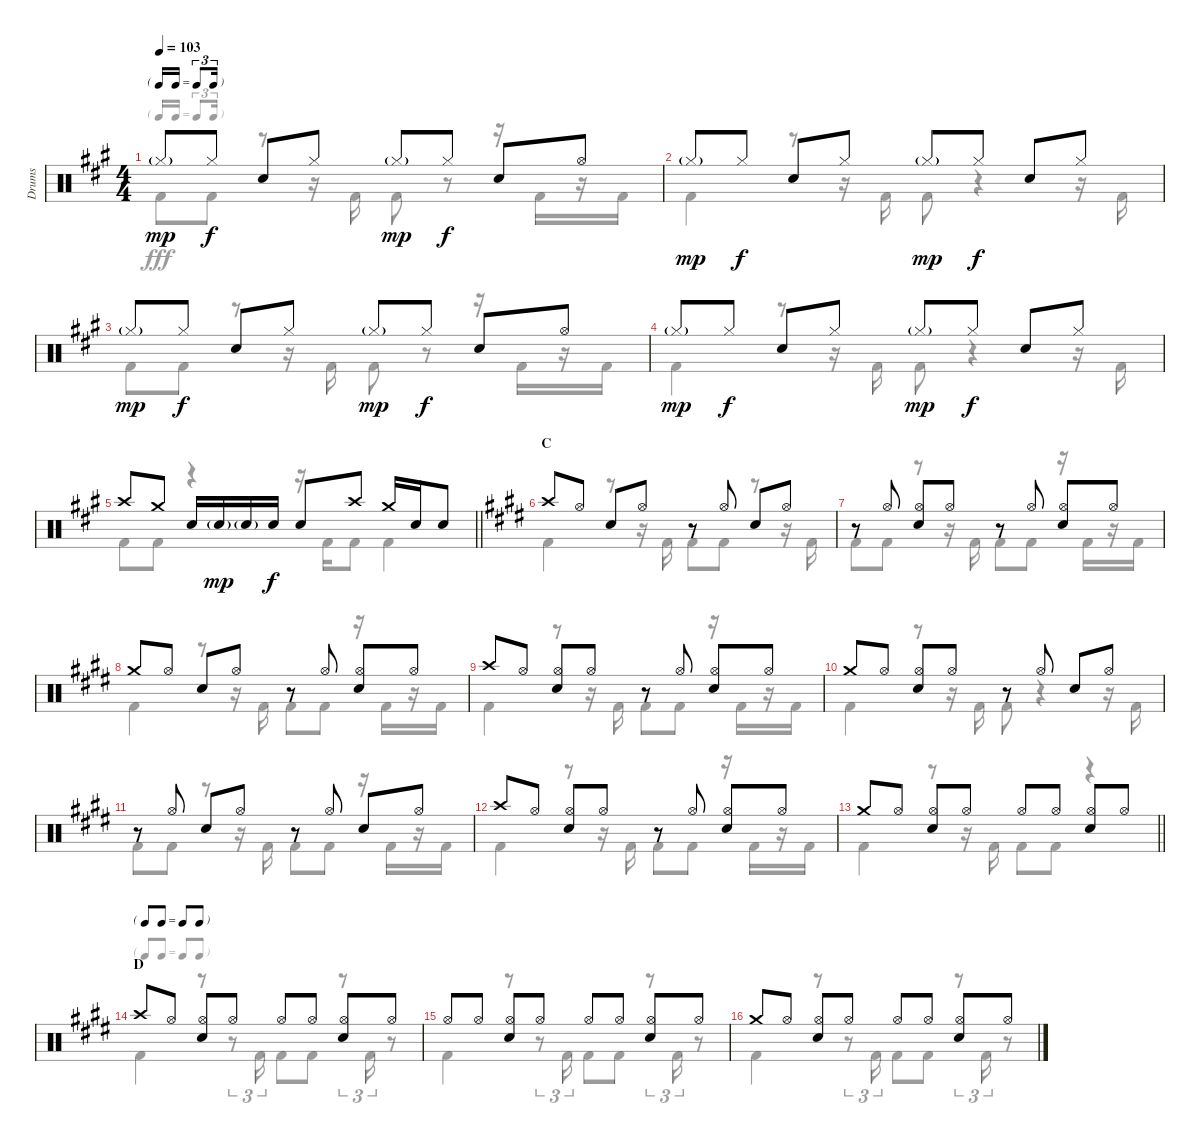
\track ("Drums" "Drums") {instrument percussion}
\staff {score}
\articulation defaults
\voice
\ts (4 4)
\tf triplet16th
\tempo 103
\clef neutral
\ks a "Hi-Hat (closed)"{g}.8{dy mp} "Hi-Hat (closed)".8{dy f} "Snare (hit) 2".8 "Hi-Hat (closed)".8 "Hi-Hat (closed)"{g}.8{dy mp} "Hi-Hat (closed)".8{dy f} "Snare (hit) 2".8 "Hi-Hat (open)".8
|
"Hi-Hat (closed)"{g}.8{dy mp} "Hi-Hat (closed)".8{dy f} "Snare (hit) 2".8 "Hi-Hat (closed)".8 "Hi-Hat (closed)"{g}.8{dy mp} "Hi-Hat (closed)".8{dy f} "Snare (hit) 2".8 "Hi-Hat (closed)".8 |
"Hi-Hat (closed)"{g}.8{dy mp} "Hi-Hat (closed)".8{dy f} "Snare (hit) 2".8 "Hi-Hat (closed)".8 "Hi-Hat (closed)"{g}.8{dy mp} "Hi-Hat (closed)".8{dy f} "Snare (hit) 2".8 "Hi-Hat (open)".8 |
"Hi-Hat (closed)"{g}.8{dy mp} "Hi-Hat (closed)".8{dy f} "Snare (hit) 2".8 "Hi-Hat (closed)".8 "Hi-Hat (closed)"{g}.8{dy mp} "Hi-Hat (closed)".8{dy f} "Snare (hit) 2".8 "Hi-Hat (closed)".8 |
\barLineRight lightlight "Crash high (hit)".8 "Crash medium (hit)".8 "Snare (hit) 2".16 "Snare (hit) 2"{g}.16{dy mp} "Snare (hit) 2"{g}.16 "Snare (hit) 2".16{dy f} "Snare (hit) 2".8 "Crash high (hit)".8 "Crash medium (hit)".16 "Snare (hit) 2".16 "Snare (hit) 2".8
|
\section ("" "C")
\ks e "Crash high (hit)".8 "Hi-Hat (open)".8 "Snare (hit) 2".8 "Hi-Hat (open)".8
r.8 "Hi-Hat (open)".8 "Snare (hit) 2".8 "Hi-Hat (open)".8 |
r.8 "Hi-Hat (open)".8 ("Hi-Hat (open)" "Snare (hit) 2").8 "Hi-Hat (open)".8 r.8 "Hi-Hat (open)".8 ("Hi-Hat (open)" "Snare (hit) 2").8 "Hi-Hat (open)".8 |
"Crash medium (hit)".8 "Hi-Hat (open)".8 "Snare (hit) 2".8 "Hi-Hat (open)".8 r.8 "Hi-Hat (open)".8 ("Hi-Hat (open)" "Snare (hit) 2").8 "Hi-Hat (open)".8 |
"Crash high (hit)".8 "Hi-Hat (open)".8 ("Hi-Hat (open)" "Snare (hit) 2").8 "Hi-Hat (open)".8 r.8 "Hi-Hat (open)".8 ("Hi-Hat (open)" "Snare (hit) 2").8 "Hi-Hat (open)".8 |
"Crash medium (hit)".8 "Hi-Hat (open)".8 ("Hi-Hat (open)" "Snare (hit) 2").8 "Hi-Hat (open)".8 r.8 "Hi-Hat (open)".8 "Snare (hit) 2".8 "Hi-Hat (open)".8 |
r.8 "Hi-Hat (open)".8 "Snare (hit) 2".8 "Hi-Hat (open)".8 r.8 "Hi-Hat (open)".8 "Snare (hit) 2".8 "Hi-Hat (open)".8 |
"Crash high (hit)".8 "Hi-Hat (open)".8 ("Hi-Hat (open)" "Snare (hit) 2").8 "Hi-Hat (open)".8 r.8 "Hi-Hat (open)".8 ("Hi-Hat (open)" "Snare (hit) 2").8 "Hi-Hat (open)".8 |
\barLineRight lightlight "Crash medium (hit)".8 "Hi-Hat (open)".8
("Hi-Hat (open)" "Snare (hit) 2").8 "Hi-Hat (open)".8 "Hi-Hat (open)".8 "Hi-Hat (open)".8 ("Hi-Hat (open)" "Snare (hit) 2").8 "Hi-Hat (open)".8 |
\tf none
\section ("" "D")
"Crash high (hit)".8 "Hi-Hat (open)".8 ("Hi-Hat (open)" "Snare (hit) 2").8 "Hi-Hat (open)".8 "Hi-Hat (open)".8 "Hi-Hat (open)".8 ("Hi-Hat (open)" "Snare (hit) 2").8 "Hi-Hat (open)".8 |
"Hi-Hat (open)".8 "Hi-Hat (open)".8 ("Hi-Hat (open)" "Snare (hit) 2").8 "Hi-Hat (open)".8 "Hi-Hat (open)".8 "Hi-Hat (open)".8 ("Hi-Hat (open)" "Snare (hit) 2").8 "Hi-Hat (open)".8 |
"Crash medium (hit)".8 "Hi-Hat (open)".8 ("Hi-Hat (open)" "Snare (hit) 2").8 "Hi-Hat (open)".8 "Hi-Hat (open)".8 "Hi-Hat (open)".8 ("Hi-Hat (open)" "Snare (hit) 2").8 "Hi-Hat (open)".8
\voice
\clef neutral
\ottava regular
\simile none
\ks a "Kick (hit) 2".8{dy fff} "Kick (hit) 2".8
r.8 r.16 "Kick (hit) 2".16 "Kick (hit) 2".8 r.8 r.16 "Kick (hit) 2".16 r.16 "Kick (hit) 2".16 |
"Kick (hit) 2".4 r.8 r.16 "Kick (hit) 2".16 "Kick (hit) 2".8 r.4 r.16 "Kick (hit) 2".16 |
"Kick (hit) 2".8 "Kick (hit) 2".8 r.8 r.16 "Kick (hit) 2".16 "Kick (hit) 2".8 r.8 r.16 "Kick (hit) 2".16 r.16 "Kick (hit) 2".16 |
"Kick (hit) 2".4 r.8 r.16 "Kick (hit) 2".16 "Kick (hit) 2".8 r.4 r.16 "Kick (hit) 2".16 |
\barLineRight lightlight "Kick (hit) 2".8 "Kick (hit) 2".8
r.4 r.16 "Kick (hit) 2".16 "Kick (hit) 2".8 "Kick (hit) 2".4 |
\ks e "Kick (hit) 2".4
r.8 r.16 "Kick (hit) 2".16 "Kick (hit) 2".8 "Kick (hit) 2".8 r.8 r.16 "Kick (hit) 2".16 |
"Kick (hit) 2".8 "Kick (hit) 2".8 r.8 r.16 "Kick (hit) 2".16 "Kick (hit) 2".8 "Kick (hit) 2".8 r.16 "Kick (hit) 2".16 r.16 "Kick (hit) 2".16 |
"Kick (hit) 2".4 r.8 r.16 "Kick (hit) 2".16 "Kick (hit) 2".8 "Kick (hit) 2".8 r.16 "Kick (hit) 2".16 r.16 "Kick (hit) 2".16 |
"Kick (hit) 2".4 r.8 r.16 "Kick (hit) 2".16 "Kick (hit) 2".8 "Kick (hit) 2".8 r.16 "Kick (hit) 2".16 r.16 "Kick (hit) 2".16 |
"Kick (hit) 2".4 r.8 r.16 "Kick (hit) 2".16 "Kick (hit) 2".8 r.4 r.16 "Kick (hit) 2".16 |
"Kick (hit) 2".8 "Kick (hit) 2".8 r.8 r.16 "Kick (hit) 2".16 "Kick (hit) 2".8 "Kick (hit) 2".8 r.16 "Kick (hit) 2".16 r.16 "Kick (hit) 2".16 |
"Kick (hit) 2".4 r.8 r.16 "Kick (hit) 2".16 "Kick (hit) 2".8 "Kick (hit) 2".8 r.16 "Kick (hit) 2".16 r.16 "Kick (hit) 2".16 |
\barLineRight lightlight "Kick (hit) 2".4
r.8 r.16 "Kick (hit) 2".16 "Kick (hit) 2".8 "Kick (hit) 2".8 r.4 |
"Kick (hit) 2".4 r.8 r.8{tu (3 2)} "Kick (hit) 2".16{tu (3 2)} "Kick (hit) 2".8 "Kick (hit) 2".8 r.8{tu (3 2)} "Kick (hit) 2".16{tu (3 2)} r.8 |
"Kick (hit) 2".4 r.8 r.8{tu (3 2)} "Kick (hit) 2".16{tu (3 2)} "Kick (hit) 2".8 "Kick (hit) 2".8 r.8{tu (3 2)} "Kick (hit) 2".16{tu (3 2)} r.8 |
"Kick (hit) 2".4 r.8 r.8{tu (3 2)} "Kick (hit) 2".16{tu (3 2)} "Kick (hit) 2".8 "Kick (hit) 2".8 r.8{tu (3 2)} "Kick (hit) 2".16{tu (3 2)} r.8
